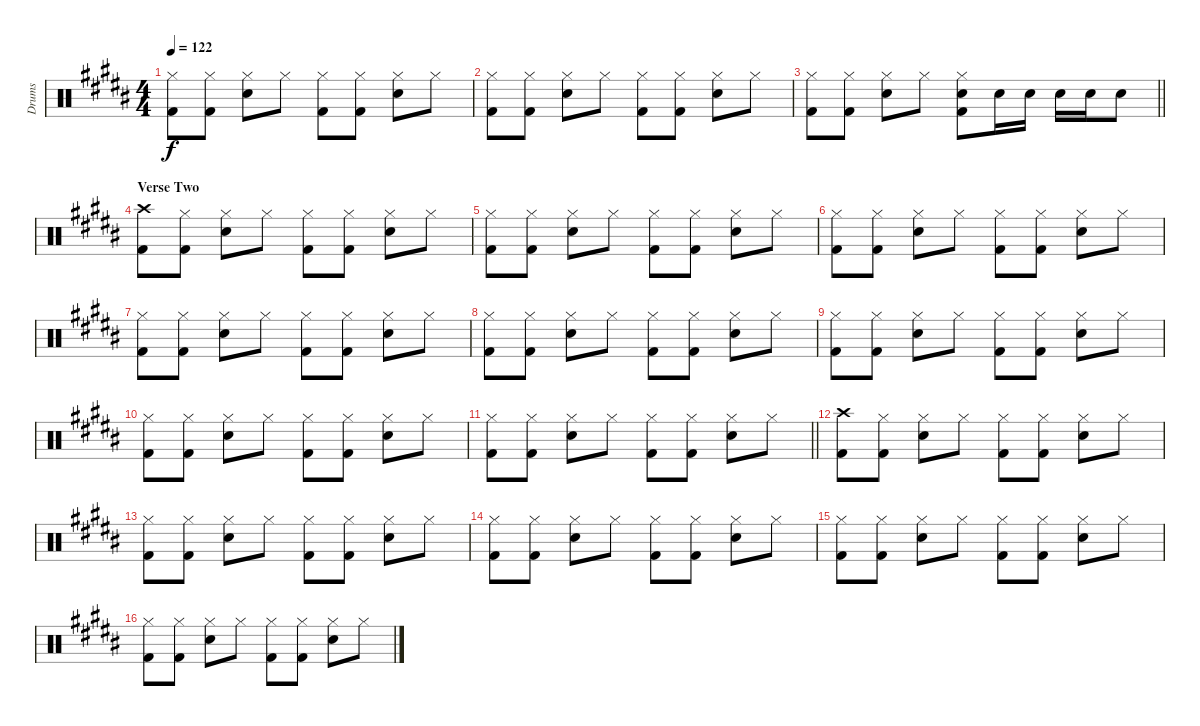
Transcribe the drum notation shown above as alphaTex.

\track ("Drums" "Drums") {instrument percussion}
\staff {score}
\articulation defaults
\ts (4 4)
\tempo 122
\clef neutral
\ks b
("Hi-Hat (closed)" "Kick (hit) 2").8{dy f} ("Hi-Hat (closed)" "Kick (hit) 2").8 ("Hi-Hat (closed)" "Snare (hit) 2").8 "Hi-Hat (closed)".8 ("Hi-Hat (closed)" "Kick (hit) 2").8 ("Hi-Hat (closed)" "Kick (hit) 2").8 ("Hi-Hat (closed)" "Snare (hit) 2").8 "Hi-Hat (closed)".8 |
("Hi-Hat (closed)" "Kick (hit) 2").8 ("Hi-Hat (closed)" "Kick (hit) 2").8 ("Hi-Hat (closed)" "Snare (hit) 2").8 "Hi-Hat (closed)".8 ("Hi-Hat (closed)" "Kick (hit) 2").8 ("Hi-Hat (closed)" "Kick (hit) 2").8 ("Hi-Hat (closed)" "Snare (hit) 2").8 "Hi-Hat (closed)".8 |
\barLineRight lightlight
("Hi-Hat (closed)" "Kick (hit) 2").8 ("Hi-Hat (closed)" "Kick (hit) 2").8 ("Hi-Hat (closed)" "Snare (hit) 2").8 "Hi-Hat (closed)".8 ("Hi-Hat (closed)" "Snare (hit) 2" "Kick (hit) 2").8 "Snare (hit) 2".16 "Snare (hit) 2".16 "Snare (hit) 2".16 "Snare (hit) 2".16 "Snare (hit) 2".8 |
\section ("" "Verse Two")
("Crash high (hit)" "Kick (hit) 2").8 ("Hi-Hat (closed)" "Kick (hit) 2").8 ("Hi-Hat (closed)" "Snare (hit) 2").8 "Hi-Hat (closed)".8 ("Hi-Hat (closed)" "Kick (hit) 2").8 ("Hi-Hat (closed)" "Kick (hit) 2").8 ("Hi-Hat (closed)" "Snare (hit) 2").8 "Hi-Hat (closed)".8 |
("Hi-Hat (closed)" "Kick (hit) 2").8 ("Hi-Hat (closed)" "Kick (hit) 2").8 ("Hi-Hat (closed)" "Snare (hit) 2").8 "Hi-Hat (closed)".8 ("Hi-Hat (closed)" "Kick (hit) 2").8 ("Hi-Hat (closed)" "Kick (hit) 2").8 ("Hi-Hat (closed)" "Snare (hit) 2").8 "Hi-Hat (closed)".8 |
("Hi-Hat (closed)" "Kick (hit) 2").8 ("Hi-Hat (closed)" "Kick (hit) 2").8 ("Hi-Hat (closed)" "Snare (hit) 2").8 "Hi-Hat (closed)".8 ("Hi-Hat (closed)" "Kick (hit) 2").8 ("Hi-Hat (closed)" "Kick (hit) 2").8 ("Hi-Hat (closed)" "Snare (hit) 2").8 "Hi-Hat (closed)".8 |
("Hi-Hat (closed)" "Kick (hit) 2").8 ("Hi-Hat (closed)" "Kick (hit) 2").8 ("Hi-Hat (closed)" "Snare (hit) 2").8 "Hi-Hat (closed)".8 ("Hi-Hat (closed)" "Kick (hit) 2").8 ("Hi-Hat (closed)" "Kick (hit) 2").8 ("Hi-Hat (closed)" "Snare (hit) 2").8 "Hi-Hat (closed)".8 |
("Hi-Hat (closed)" "Kick (hit) 2").8 ("Hi-Hat (closed)" "Kick (hit) 2").8 ("Hi-Hat (closed)" "Snare (hit) 2").8 "Hi-Hat (closed)".8 ("Hi-Hat (closed)" "Kick (hit) 2").8 ("Hi-Hat (closed)" "Kick (hit) 2").8 ("Hi-Hat (closed)" "Snare (hit) 2").8 "Hi-Hat (closed)".8 |
("Hi-Hat (closed)" "Kick (hit) 2").8 ("Hi-Hat (closed)" "Kick (hit) 2").8 ("Hi-Hat (closed)" "Snare (hit) 2").8 "Hi-Hat (closed)".8 ("Hi-Hat (closed)" "Kick (hit) 2").8 ("Hi-Hat (closed)" "Kick (hit) 2").8 ("Hi-Hat (closed)" "Snare (hit) 2").8 "Hi-Hat (closed)".8 |
("Hi-Hat (closed)" "Kick (hit) 2").8 ("Hi-Hat (closed)" "Kick (hit) 2").8 ("Hi-Hat (closed)" "Snare (hit) 2").8 "Hi-Hat (closed)".8 ("Hi-Hat (closed)" "Kick (hit) 2").8 ("Hi-Hat (closed)" "Kick (hit) 2").8 ("Hi-Hat (closed)" "Snare (hit) 2").8 "Hi-Hat (closed)".8 |
\barLineRight lightlight
("Hi-Hat (closed)" "Kick (hit) 2").8 ("Hi-Hat (closed)" "Kick (hit) 2").8 ("Hi-Hat (closed)" "Snare (hit) 2").8 "Hi-Hat (closed)".8 ("Hi-Hat (closed)" "Kick (hit) 2").8 ("Hi-Hat (closed)" "Kick (hit) 2").8 ("Hi-Hat (closed)" "Snare (hit) 2").8 "Hi-Hat (closed)".8 |
("Crash high (hit)" "Kick (hit) 2").8 ("Hi-Hat (closed)" "Kick (hit) 2").8 ("Hi-Hat (closed)" "Snare (hit) 2").8 "Hi-Hat (closed)".8 ("Hi-Hat (closed)" "Kick (hit) 2").8 ("Hi-Hat (closed)" "Kick (hit) 2").8 ("Hi-Hat (closed)" "Snare (hit) 2").8 "Hi-Hat (closed)".8 |
("Hi-Hat (closed)" "Kick (hit) 2").8 ("Hi-Hat (closed)" "Kick (hit) 2").8 ("Hi-Hat (closed)" "Snare (hit) 2").8 "Hi-Hat (closed)".8 ("Hi-Hat (closed)" "Kick (hit) 2").8 ("Hi-Hat (closed)" "Kick (hit) 2").8 ("Hi-Hat (closed)" "Snare (hit) 2").8 "Hi-Hat (closed)".8 |
("Hi-Hat (closed)" "Kick (hit) 2").8 ("Hi-Hat (closed)" "Kick (hit) 2").8 ("Hi-Hat (closed)" "Snare (hit) 2").8 "Hi-Hat (closed)".8 ("Hi-Hat (closed)" "Kick (hit) 2").8 ("Hi-Hat (closed)" "Kick (hit) 2").8 ("Hi-Hat (closed)" "Snare (hit) 2").8 "Hi-Hat (closed)".8 |
("Hi-Hat (closed)" "Kick (hit) 2").8 ("Hi-Hat (closed)" "Kick (hit) 2").8 ("Hi-Hat (closed)" "Snare (hit) 2").8 "Hi-Hat (closed)".8 ("Hi-Hat (closed)" "Kick (hit) 2").8 ("Hi-Hat (closed)" "Kick (hit) 2").8 ("Hi-Hat (closed)" "Snare (hit) 2").8 "Hi-Hat (closed)".8 |
("Hi-Hat (closed)" "Kick (hit) 2").8 ("Hi-Hat (closed)" "Kick (hit) 2").8 ("Hi-Hat (closed)" "Snare (hit) 2").8 "Hi-Hat (closed)".8 ("Hi-Hat (closed)" "Kick (hit) 2").8 ("Hi-Hat (closed)" "Kick (hit) 2").8 ("Hi-Hat (closed)" "Snare (hit) 2").8 "Hi-Hat (closed)".8
